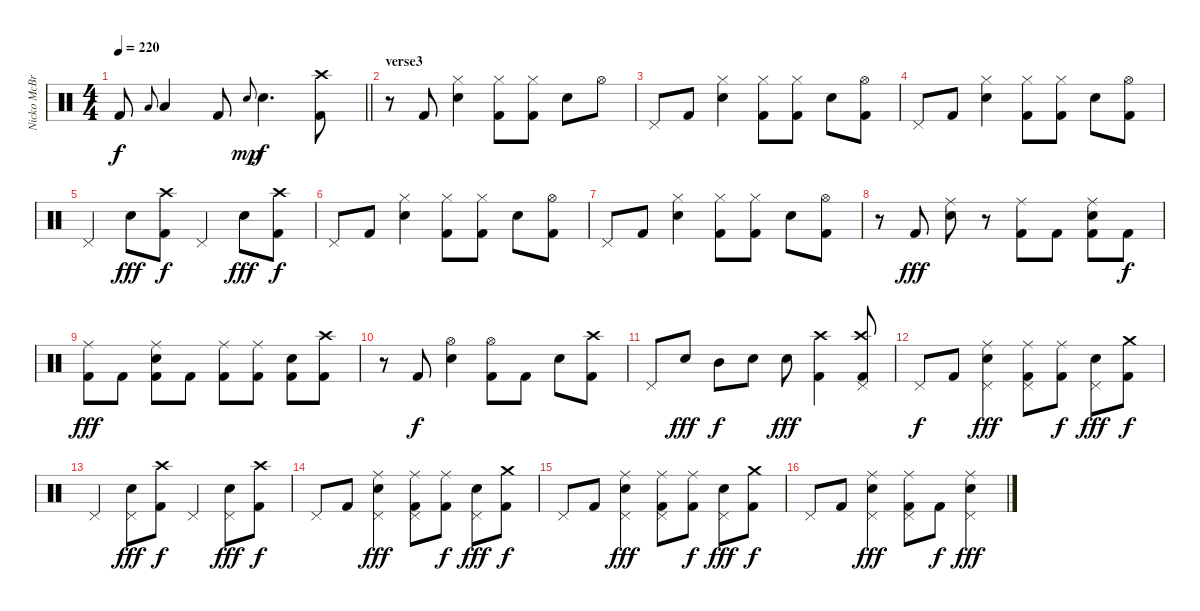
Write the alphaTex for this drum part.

\track ("Nicko McBrain" "Nicko McBr") {instrument percussion}
\staff {score}
\articulation defaults
\ts (4 4)
\tempo 220
\clef neutral
\barLineRight lightlight
\ks c "Kick (hit) 2".8{dy f} "Low Tom (hit)".8{gr onbeat} "Low Tom (hit)".4 "Kick (hit) 2".8 "Snare (hit) 2".8{gr onbeat dy mp} "Snare (hit) 2".4{d dy f}
("Crash high (hit)" "Kick (hit) 2").8 |
\section ("" "verse3")
r.8 "Kick (hit) 2".8 ("Hi-Hat (closed)" "Snare (hit) 2").4 ("Hi-Hat (closed)" "Kick (hit) 2").8 ("Hi-Hat (closed)" "Kick (hit) 2").8 "Snare (hit) 2".8 "Hi-Hat (open)".8 |
"Pedal Hi-Hat (hit)".8 "Kick (hit) 2".8 ("Hi-Hat (closed)" "Snare (hit) 2").4 ("Hi-Hat (closed)" "Kick (hit) 2").8 ("Hi-Hat (closed)" "Kick (hit) 2").8 "Snare (hit) 2".8 ("Hi-Hat (open)" "Kick (hit) 2").8 |
"Pedal Hi-Hat (hit)".8 "Kick (hit) 2".8 ("Hi-Hat (closed)" "Snare (hit) 2").4 ("Hi-Hat (closed)" "Kick (hit) 2").8 ("Hi-Hat (closed)" "Kick (hit) 2").8 "Snare (hit) 2".8 ("Hi-Hat (open)" "Kick (hit) 2").8 |
"Pedal Hi-Hat (hit)".4 "Snare (hit) 2".8{dy fff} ("Crash high (hit)" "Kick (hit) 2").8{dy f} "Pedal Hi-Hat (hit)".4 "Snare (hit) 2".8{dy fff} ("Crash high (hit)" "Kick (hit) 2").8{dy f} |
"Pedal Hi-Hat (hit)".8 "Kick (hit) 2".8 ("Hi-Hat (closed)" "Snare (hit) 2").4 ("Hi-Hat (closed)" "Kick (hit) 2").8 ("Hi-Hat (closed)" "Kick (hit) 2").8 "Snare (hit) 2".8 ("Hi-Hat (open)" "Kick (hit) 2").8 |
"Pedal Hi-Hat (hit)".8 "Kick (hit) 2".8 ("Hi-Hat (closed)" "Snare (hit) 2").4 ("Hi-Hat (closed)" "Kick (hit) 2").8 ("Hi-Hat (closed)" "Kick (hit) 2").8 "Snare (hit) 2".8 ("Hi-Hat (open)" "Kick (hit) 2").8 |
r.8 "Kick (hit) 2".8{dy fff} ("Ride (middle)" "Snare (hit) 2").8 r.8 ("Ride (middle)" "Kick (hit) 2").8 "Kick (hit) 2".8 ("Ride (middle)" "Snare (hit) 2" "Kick (hit) 2").8 "Kick (hit) 2".8{dy f} |
("Ride (middle)" "Kick (hit) 2").8{dy fff} "Kick (hit) 2".8 ("Ride (middle)" "Snare (hit) 2" "Kick (hit) 2").8 "Kick (hit) 2".8 ("Ride (middle)" "Kick (hit) 2").8 ("Ride (middle)" "Kick (hit) 2").8 ("Snare (hit) 2" "Kick (hit) 2").8 ("Crash high (hit)" "Kick (hit) 2").8 |
r.8 "Kick (hit) 2".8{dy f} ("Hi-Hat (open)" "Snare (hit) 2").4 ("Hi-Hat (open)" "Kick (hit) 2").8 "Kick (hit) 2".8 "Snare (hit) 2".8 ("Crash high (hit)" "Kick (hit) 2").8 |
"Pedal Hi-Hat (hit)".8 "Snare (hit) 2".8{dy fff} "Mid Tom (hit)".8{dy f} "Snare (hit) 2".8 "Snare (hit) 2".8{dy fff} ("Crash high (hit)" "Kick (hit) 2").4 ("Crash high (hit)" "Pedal Hi-Hat (hit)" "Kick (hit) 2").8 |
"Pedal Hi-Hat (hit)".8{dy f} "Kick (hit) 2".8 ("Ride (middle)" "Snare (hit) 2" "Pedal Hi-Hat (hit)").4{dy fff} ("Ride (middle)" "Pedal Hi-Hat (hit)" "Kick (hit) 2").8 ("Ride (middle)" "Kick (hit) 2").8{dy f} ("Snare (hit) 2" "Pedal Hi-Hat (hit)").8{dy fff} ("Crash medium (hit)" "Kick (hit) 2").8{dy f} |
"Pedal Hi-Hat (hit)".4 ("Snare (hit) 2" "Pedal Hi-Hat (hit)").8{dy fff} ("Crash high (hit)" "Kick (hit) 2").8{dy f} "Pedal Hi-Hat (hit)".4 ("Snare (hit) 2" "Pedal Hi-Hat (hit)").8{dy fff} ("Crash high (hit)" "Kick (hit) 2").8{dy f} |
"Pedal Hi-Hat (hit)".8 "Kick (hit) 2".8 ("Ride (middle)" "Snare (hit) 2" "Pedal Hi-Hat (hit)").4{dy fff} ("Ride (middle)" "Pedal Hi-Hat (hit)" "Kick (hit) 2").8 ("Ride (middle)" "Kick (hit) 2").8{dy f} ("Snare (hit) 2" "Pedal Hi-Hat (hit)").8{dy fff} ("Crash medium (hit)" "Kick (hit) 2").8{dy f} |
"Pedal Hi-Hat (hit)".8 "Kick (hit) 2".8 ("Ride (middle)" "Snare (hit) 2" "Pedal Hi-Hat (hit)").4{dy fff} ("Ride (middle)" "Pedal Hi-Hat (hit)" "Kick (hit) 2").8 ("Ride (middle)" "Kick (hit) 2").8{dy f} ("Snare (hit) 2" "Pedal Hi-Hat (hit)").8{dy fff} ("Crash medium (hit)" "Kick (hit) 2").8{dy f} |
"Pedal Hi-Hat (hit)".8 "Kick (hit) 2".8 ("Ride (middle)" "Snare (hit) 2" "Pedal Hi-Hat (hit)").4{dy fff} ("Ride (middle)" "Pedal Hi-Hat (hit)" "Kick (hit) 2").8 "Kick (hit) 2".8{dy f} ("Ride (middle)" "Snare (hit) 2" "Pedal Hi-Hat (hit)").4{dy fff}
